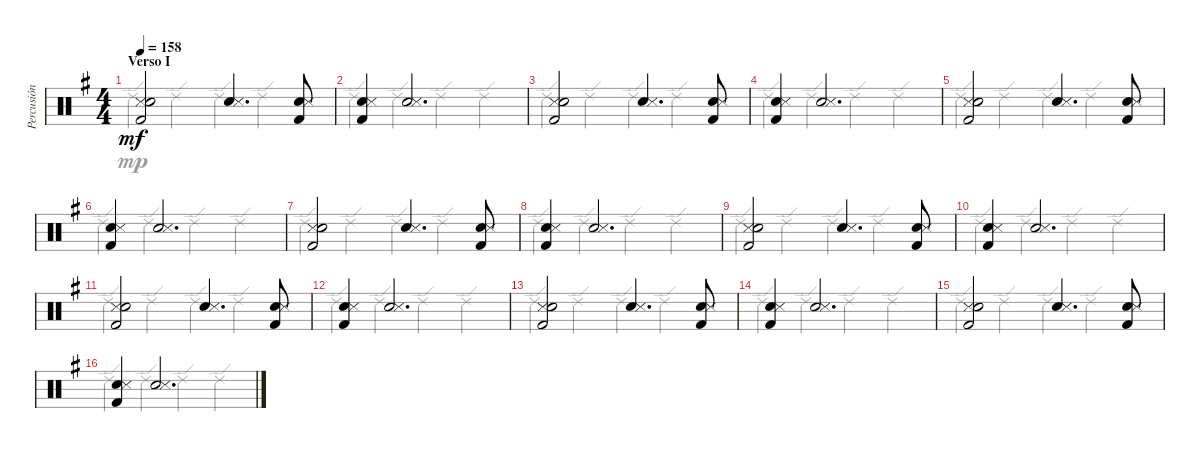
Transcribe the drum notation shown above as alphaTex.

\track ("Percusión" "Percusión") {instrument percussion}
\staff {score}
\articulation defaults
\voice
\ts (4 4)
\section ("" "Verso I")
\tempo 158
\clef neutral
\ks g
("Snare (side stick) 3" "Hand Clap (hit)" "Kick (hit) 2").2{dy mf} ("Hand Clap (hit)" "Snare (side stick) 3").4{d} ("Hand Clap (hit)" "Snare (side stick) 3" "Kick (hit) 2").8 |
("Hand Clap (hit)" "Snare (side stick) 3" "Kick (hit) 2").4 ("Hand Clap (hit)" "Snare (side stick) 3").2{d} |
("Snare (side stick) 3" "Hand Clap (hit)" "Kick (hit) 2").2 ("Hand Clap (hit)" "Snare (side stick) 3").4{d} ("Hand Clap (hit)" "Snare (side stick) 3" "Kick (hit) 2").8 |
("Hand Clap (hit)" "Snare (side stick) 3" "Kick (hit) 2").4 ("Hand Clap (hit)" "Snare (side stick) 3").2{d} |
("Snare (side stick) 3" "Hand Clap (hit)" "Kick (hit) 2").2 ("Hand Clap (hit)" "Snare (side stick) 3").4{d} ("Hand Clap (hit)" "Snare (side stick) 3" "Kick (hit) 2").8 |
("Hand Clap (hit)" "Snare (side stick) 3" "Kick (hit) 2").4 ("Hand Clap (hit)" "Snare (side stick) 3").2{d} |
("Snare (side stick) 3" "Hand Clap (hit)" "Kick (hit) 2").2 ("Hand Clap (hit)" "Snare (side stick) 3").4{d} ("Hand Clap (hit)" "Snare (side stick) 3" "Kick (hit) 2").8 |
("Hand Clap (hit)" "Snare (side stick) 3" "Kick (hit) 2").4 ("Hand Clap (hit)" "Snare (side stick) 3").2{d} |
("Snare (side stick) 3" "Hand Clap (hit)" "Kick (hit) 2").2 ("Hand Clap (hit)" "Snare (side stick) 3").4{d} ("Hand Clap (hit)" "Snare (side stick) 3" "Kick (hit) 2").8 |
("Hand Clap (hit)" "Snare (side stick) 3" "Kick (hit) 2").4 ("Hand Clap (hit)" "Snare (side stick) 3").2{d} |
("Snare (side stick) 3" "Hand Clap (hit)" "Kick (hit) 2").2 ("Hand Clap (hit)" "Snare (side stick) 3").4{d} ("Hand Clap (hit)" "Snare (side stick) 3" "Kick (hit) 2").8 |
("Hand Clap (hit)" "Snare (side stick) 3" "Kick (hit) 2").4 ("Hand Clap (hit)" "Snare (side stick) 3").2{d} |
("Snare (side stick) 3" "Hand Clap (hit)" "Kick (hit) 2").2 ("Hand Clap (hit)" "Snare (side stick) 3").4{d} ("Hand Clap (hit)" "Snare (side stick) 3" "Kick (hit) 2").8 |
("Hand Clap (hit)" "Snare (side stick) 3" "Kick (hit) 2").4 ("Hand Clap (hit)" "Snare (side stick) 3").2{d} |
("Snare (side stick) 3" "Hand Clap (hit)" "Kick (hit) 2").2 ("Hand Clap (hit)" "Snare (side stick) 3").4{d} ("Hand Clap (hit)" "Snare (side stick) 3" "Kick (hit) 2").8 |
("Hand Clap (hit)" "Snare (side stick) 3" "Kick (hit) 2").4 ("Hand Clap (hit)" "Snare (side stick) 3").2{d}
\voice
\clef neutral
\ottava regular
\simile none
\ks g "Ride (edge) 2".4{dy mp} "Ride (edge) 2".4 "Ride (edge) 2".4 "Ride (edge) 2".4
|
"Ride (edge) 2".4 "Ride (edge) 2".4 "Ride (edge) 2".4 "Ride (edge) 2".4 |
"Ride (edge) 2".4 "Ride (edge) 2".4 "Ride (edge) 2".4 "Ride (edge) 2".4 |
"Ride (edge) 2".4 "Ride (edge) 2".4 "Ride (edge) 2".4 "Ride (edge) 2".4 |
"Ride (edge) 2".4 "Ride (edge) 2".4 "Ride (edge) 2".4 "Ride (edge) 2".4 |
"Ride (edge) 2".4 "Ride (edge) 2".4 "Ride (edge) 2".4 "Ride (edge) 2".4 |
"Ride (edge) 2".4 "Ride (edge) 2".4 "Ride (edge) 2".4 "Ride (edge) 2".4 |
"Ride (edge) 2".4 "Ride (edge) 2".4 "Ride (edge) 2".4 "Ride (edge) 2".4 |
"Ride (edge) 2".4 "Ride (edge) 2".4 "Ride (edge) 2".4 "Ride (edge) 2".4 |
"Ride (edge) 2".4 "Ride (edge) 2".4 "Ride (edge) 2".4 "Ride (edge) 2".4 |
"Ride (edge) 2".4 "Ride (edge) 2".4 "Ride (edge) 2".4 "Ride (edge) 2".4 |
"Ride (edge) 2".4 "Ride (edge) 2".4 "Ride (edge) 2".4 "Ride (edge) 2".4 |
"Ride (edge) 2".4 "Ride (edge) 2".4 "Ride (edge) 2".4 "Ride (edge) 2".4 |
"Ride (edge) 2".4 "Ride (edge) 2".4 "Ride (edge) 2".4 "Ride (edge) 2".4 |
"Ride (edge) 2".4 "Ride (edge) 2".4 "Ride (edge) 2".4 "Ride (edge) 2".4 |
"Ride (edge) 2".4 "Ride (edge) 2".4 "Ride (edge) 2".4 "Ride (edge) 2".4
